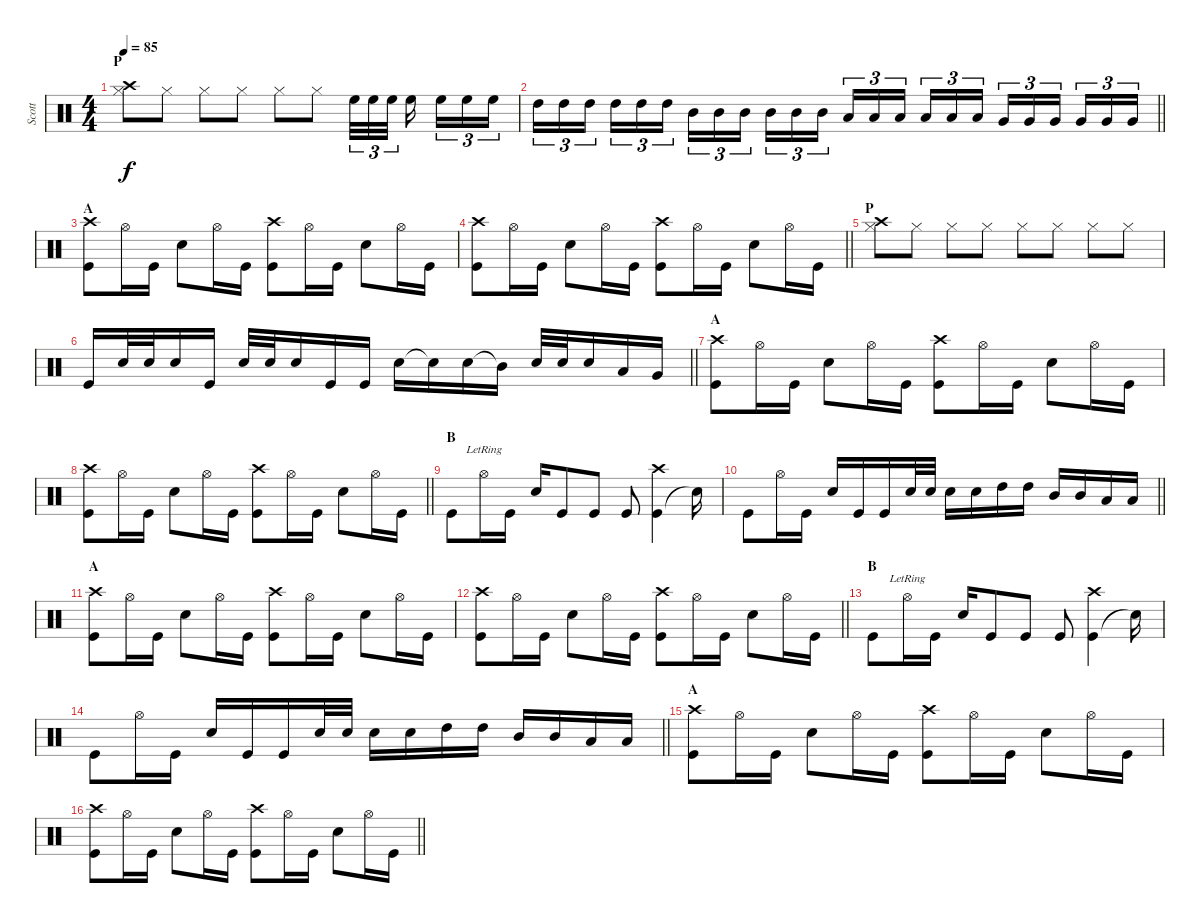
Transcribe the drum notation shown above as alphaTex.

\track ("Scott" "Scott") {instrument percussion}
\staff {score}
\articulation defaults
\ts (4 4)
\section ("" "P")
\tempo 85
\clef neutral
\ks c
("Hi-Hat (closed)" "Crash high (hit)").8{dy f} "Hi-Hat (closed)".8 "Hi-Hat (closed)".8 "Hi-Hat (closed)".8 "Hi-Hat (closed)".8 "Hi-Hat (closed)".8 "High Floor Tom (hit)".32{tu (3 2)} "High Floor Tom (hit)".32{tu (3 2)} "High Floor Tom (hit)".32{tu (3 2) beam splitsecondary} "High Floor Tom (hit)".16{beam splitsecondary} "High Floor Tom (hit)".16{tu (3 2)} "High Floor Tom (hit)".16{tu (3 2)} "High Floor Tom (hit)".16{tu (3 2)} |
\barLineRight lightlight "High Tom (hit)".16{tu (3 2)} "High Tom (hit)".16{tu (3 2)} "High Tom (hit)".16{tu (3 2) beam splitsecondary} "High Tom (hit)".16{tu (3 2)} "High Tom (hit)".16{tu (3 2)} "High Tom (hit)".16{tu (3 2)} "Mid Tom (hit)".16{tu (3 2)} "Mid Tom (hit)".16{tu (3 2)} "Mid Tom (hit)".16{tu (3 2) beam splitsecondary} "Mid Tom (hit)".16{tu (3 2)} "Mid Tom (hit)".16{tu (3 2)} "Mid Tom (hit)".16{tu (3 2)} "Low Tom (hit)".16{tu (3 2)} "Low Tom (hit)".16{tu (3 2)} "Low Tom (hit)".16{tu (3 2) beam splitsecondary} "Low Tom (hit)".16{tu (3 2)} "Low Tom (hit)".16{tu (3 2)} "Low Tom (hit)".16{tu (3 2)} "Very Low Tom (hit)".16{tu (3 2)} "Very Low Tom (hit)".16{tu (3 2)} "Very Low Tom (hit)".16{tu (3 2) beam splitsecondary} "Very Low Tom (hit)".16{tu (3 2)} "Very Low Tom (hit)".16{tu (3 2)} "Very Low Tom (hit)".16{tu (3 2)}
|
\section ("" "A")
("Kick (hit)" "Crash high (hit)").8 "Hi-Hat (open)".16 "Kick (hit)".16 "Snare (hit) 2".8 "Hi-Hat (open)".16 "Kick (hit)".16 ("Kick (hit)" "Crash high (hit)").8 "Hi-Hat (open)".16 "Kick (hit)".16 "Snare (hit) 2".8 "Hi-Hat (open)".16 "Kick (hit)".16 |
\barLineRight lightlight
("Kick (hit)" "Crash high (hit)").8 "Hi-Hat (open)".16 "Kick (hit)".16 "Snare (hit) 2".8 "Hi-Hat (open)".16 "Kick (hit)".16 ("Kick (hit)" "Crash high (hit)").8 "Hi-Hat (open)".16 "Kick (hit)".16 "Snare (hit) 2".8 "Hi-Hat (open)".16 "Kick (hit)".16 |
\section ("" "P")
("Hi-Hat (closed)" "Crash high (hit)").8 "Hi-Hat (closed)".8 "Hi-Hat (closed)".8 "Hi-Hat (closed)".8 "Hi-Hat (closed)".8 "Hi-Hat (closed)".8 "Hi-Hat (closed)".8 "Hi-Hat (closed)".8 |
\barLineRight lightlight "Kick (hit)".16 "Snare (hit) 2".32 "Snare (hit) 2".32 "Snare (hit) 2".16 "Kick (hit)".16 "Snare (hit) 2".32 "Snare (hit) 2".32 "Snare (hit) 2".16 "Kick (hit)".16 "Kick (hit)".16 "Snare (hit) 2".16 "Snare (hit) 2"{t}.16 "Snare (hit) 2".16 "Mid Tom (hit)"{t}.16 "Snare (hit) 2".32 "Snare (hit) 2".32 "Snare (hit) 2".16 "Low Tom (hit)".16 "Very Low Tom (hit)".16
|
\section ("" "A")
("Kick (hit)" "Crash high (hit)").8 "Hi-Hat (open)".16 "Kick (hit)".16 "Snare (hit) 2".8 "Hi-Hat (open)".16 "Kick (hit)".16 ("Kick (hit)" "Crash high (hit)").8 "Hi-Hat (open)".16 "Kick (hit)".16 "Snare (hit) 2".8 "Hi-Hat (open)".16 "Kick (hit)".16 |
\barLineRight lightlight
("Kick (hit)" "Crash high (hit)").8 "Hi-Hat (open)".16 "Kick (hit)".16 "Snare (hit) 2".8 "Hi-Hat (open)".16 "Kick (hit)".16 ("Kick (hit)" "Crash high (hit)").8 "Hi-Hat (open)".16 "Kick (hit)".16 "Snare (hit) 2".8 "Hi-Hat (open)".16 "Kick (hit)".16 |
\section ("" "B")
"Kick (hit)".8 "Hi-Hat (open)"{lr}.16 "Kick (hit)".16 "Snare (hit) 2".16 "Kick (hit)".8 "Kick (hit)".8 "Kick (hit)".8 ("Kick (hit)" "Crash high (hit)").4 "Snare (hit)"{t}.16 |
\barLineRight lightlight "Kick (hit)".8 "Hi-Hat (open)".16 "Kick (hit)".16 "Snare (hit) 2".16 "Kick (hit)".16 "Kick (hit)".16 "Snare (hit) 2".32 "Snare (hit) 2".32 "Snare (hit) 2".16 "Snare (hit) 2".16 "High Tom (hit)".16 "High Tom (hit)".16 "Mid Tom (hit)".16 "Mid Tom (hit)".16 "Low Tom (hit)".16 "Low Tom (hit)".16
|
\section ("" "A")
("Kick (hit)" "Crash high (hit)").8 "Hi-Hat (open)".16 "Kick (hit)".16 "Snare (hit) 2".8 "Hi-Hat (open)".16 "Kick (hit)".16 ("Kick (hit)" "Crash high (hit)").8 "Hi-Hat (open)".16 "Kick (hit)".16 "Snare (hit) 2".8 "Hi-Hat (open)".16 "Kick (hit)".16 |
\barLineRight lightlight
("Kick (hit)" "Crash high (hit)").8 "Hi-Hat (open)".16 "Kick (hit)".16 "Snare (hit) 2".8 "Hi-Hat (open)".16 "Kick (hit)".16 ("Kick (hit)" "Crash high (hit)").8 "Hi-Hat (open)".16 "Kick (hit)".16 "Snare (hit) 2".8 "Hi-Hat (open)".16 "Kick (hit)".16 |
\section ("" "B")
"Kick (hit)".8 "Hi-Hat (open)"{lr}.16 "Kick (hit)".16 "Snare (hit) 2".16 "Kick (hit)".8 "Kick (hit)".8 "Kick (hit)".8 ("Kick (hit)" "Crash high (hit)").4 "Snare (hit)"{t}.16 |
\barLineRight lightlight "Kick (hit)".8 "Hi-Hat (open)".16 "Kick (hit)".16 "Snare (hit) 2".16 "Kick (hit)".16 "Kick (hit)".16 "Snare (hit) 2".32 "Snare (hit) 2".32 "Snare (hit) 2".16 "Snare (hit) 2".16 "High Tom (hit)".16 "High Tom (hit)".16 "Mid Tom (hit)".16 "Mid Tom (hit)".16 "Low Tom (hit)".16 "Low Tom (hit)".16
|
\section ("" "A")
("Kick (hit)" "Crash high (hit)").8 "Hi-Hat (open)".16 "Kick (hit)".16 "Snare (hit) 2".8 "Hi-Hat (open)".16 "Kick (hit)".16 ("Kick (hit)" "Crash high (hit)").8 "Hi-Hat (open)".16 "Kick (hit)".16 "Snare (hit) 2".8 "Hi-Hat (open)".16 "Kick (hit)".16 |
\barLineRight lightlight
("Kick (hit)" "Crash high (hit)").8 "Hi-Hat (open)".16 "Kick (hit)".16 "Snare (hit) 2".8 "Hi-Hat (open)".16 "Kick (hit)".16 ("Kick (hit)" "Crash high (hit)").8 "Hi-Hat (open)".16 "Kick (hit)".16 "Snare (hit) 2".8 "Hi-Hat (open)".16 "Kick (hit)".16
